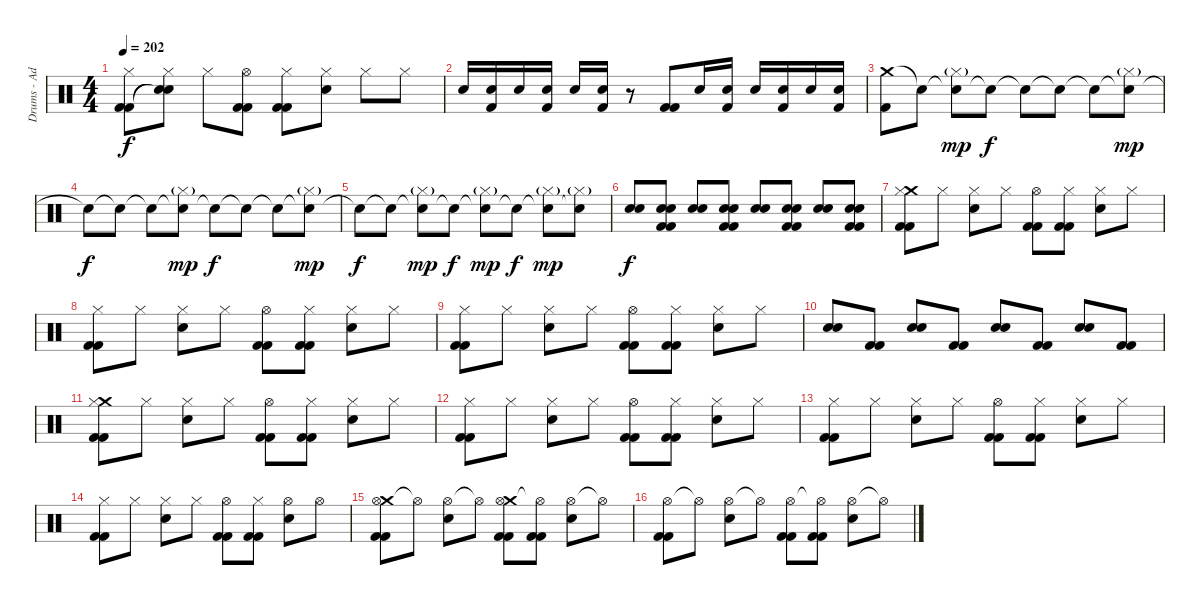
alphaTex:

\track ("Drums - Adam" "Drums - Ad") {instrument percussion}
\staff {score}
\articulation defaults
\ts (4 4)
\tempo 202
\clef neutral
\ks c
("Hi-Hat (closed)" "Kick (hit) 2" "Kick (hit) 2").8{dy f} ("Hi-Hat (closed)" "Snare (hit)"{t} "Snare (hit)"{t}).8 "Hi-Hat (closed)".8 ("Hi-Hat (open)" "Kick (hit) 2" "Kick (hit) 2").8 ("Hi-Hat (closed)" "Kick (hit) 2" "Kick (hit) 2").8 ("Hi-Hat (closed)" "Electric Snare (hit)").8 "Hi-Hat (closed)".8 "Hi-Hat (closed)".8 |
"Electric Snare (hit)".16 ("Electric Snare (hit)" "Kick (hit) 2").16 "Electric Snare (hit)".16 ("Electric Snare (hit)" "Kick (hit) 2").16 "Electric Snare (hit)".16 ("Electric Snare (hit)" "Kick (hit) 2").16 r.8 ("Kick (hit) 2" "Kick (hit) 2").8 "Electric Snare (hit)".16 ("Electric Snare (hit)" "Kick (hit) 2").16 "Electric Snare (hit)".16 ("Electric Snare (hit)" "Kick (hit) 2").16 "Electric Snare (hit)".16 ("Electric Snare (hit)" "Kick (hit) 2").16 |
("Crash medium (hit)" "Kick (hit) 2").8 "Snare (hit)"{t}.8 ("Snare (hit)"{t} "Hi-Hat (closed)"{g}).8{dy mp} "Snare (hit)"{t}.8{dy f} "Snare (hit)"{t}.8 "Snare (hit)"{t}.8 "Snare (hit)"{t}.8 ("Snare (hit)"{t} "Hi-Hat (closed)"{g}).8{dy mp} |
"Snare (hit)"{t}.8{dy f} "Snare (hit)"{t}.8 "Snare (hit)"{t}.8 ("Snare (hit)"{t} "Hi-Hat (closed)"{g}).8{dy mp} "Snare (hit)"{t}.8{dy f} "Snare (hit)"{t}.8 "Snare (hit)"{t}.8 ("Snare (hit)"{t} "Hi-Hat (closed)"{g}).8{dy mp} |
"Snare (hit)"{t}.8{dy f} "Snare (hit)"{t}.8 ("Snare (hit)"{t} "Hi-Hat (closed)"{g}).8{dy mp} "Snare (hit)"{t}.8{dy f} ("Snare (hit)"{t} "Hi-Hat (closed)"{g}).8{dy mp} "Snare (hit)"{t}.8{dy f} ("Snare (hit)"{t} "Hi-Hat (closed)"{g}).8{dy mp} ("Snare (hit)"{t} "Hi-Hat (closed)"{g}).8 |
("Snare (hit) 2" "Electric Snare (hit)").8{dy f} ("Snare (hit) 2" "Electric Snare (hit)" "Kick (hit) 2" "Kick (hit) 2").8 ("Snare (hit) 2" "Electric Snare (hit)").8 ("Snare (hit) 2" "Electric Snare (hit)" "Kick (hit) 2" "Kick (hit) 2").8 ("Snare (hit) 2" "Electric Snare (hit)").8 ("Snare (hit) 2" "Electric Snare (hit)" "Kick (hit) 2" "Kick (hit) 2").8 ("Snare (hit) 2" "Electric Snare (hit)").8 ("Snare (hit) 2" "Electric Snare (hit)" "Kick (hit) 2" "Kick (hit) 2").8 |
("Crash medium (hit)" "Hi-Hat (closed)" "Kick (hit) 2" "Kick (hit) 2").8 "Hi-Hat (closed)".8 ("Hi-Hat (closed)" "Electric Snare (hit)").8 "Hi-Hat (closed)".8 ("Hi-Hat (open)" "Kick (hit) 2" "Kick (hit) 2").8 ("Hi-Hat (closed)" "Kick (hit) 2" "Kick (hit) 2").8 ("Hi-Hat (closed)" "Electric Snare (hit)").8 "Hi-Hat (closed)".8 |
("Hi-Hat (closed)" "Kick (hit) 2" "Kick (hit) 2").8 "Hi-Hat (closed)".8 ("Hi-Hat (closed)" "Electric Snare (hit)").8 "Hi-Hat (closed)".8 ("Hi-Hat (open)" "Kick (hit) 2" "Kick (hit) 2").8 ("Hi-Hat (closed)" "Kick (hit) 2" "Kick (hit) 2").8 ("Hi-Hat (closed)" "Electric Snare (hit)").8 "Hi-Hat (closed)".8 |
("Hi-Hat (closed)" "Kick (hit) 2" "Kick (hit) 2").8 "Hi-Hat (closed)".8 ("Hi-Hat (closed)" "Electric Snare (hit)").8 "Hi-Hat (closed)".8 ("Hi-Hat (open)" "Kick (hit) 2" "Kick (hit) 2").8 ("Hi-Hat (closed)" "Kick (hit) 2" "Kick (hit) 2").8 ("Hi-Hat (closed)" "Electric Snare (hit)").8 "Hi-Hat (closed)".8 |
("Electric Snare (hit)" "Snare (hit) 2").8 ("Kick (hit) 2" "Kick (hit) 2").8 ("Electric Snare (hit)" "Snare (hit) 2").8 ("Kick (hit) 2" "Kick (hit) 2").8 ("Electric Snare (hit)" "Snare (hit) 2").8 ("Kick (hit) 2" "Kick (hit) 2").8 ("Electric Snare (hit)" "Snare (hit) 2").8 ("Kick (hit) 2" "Kick (hit) 2").8 |
("Crash medium (hit)" "Hi-Hat (closed)" "Kick (hit) 2" "Kick (hit) 2").8 "Hi-Hat (closed)".8 ("Hi-Hat (closed)" "Electric Snare (hit)").8 "Hi-Hat (closed)".8 ("Hi-Hat (open)" "Kick (hit) 2" "Kick (hit) 2").8 ("Hi-Hat (closed)" "Kick (hit) 2" "Kick (hit) 2").8 ("Hi-Hat (closed)" "Electric Snare (hit)").8 "Hi-Hat (closed)".8 |
("Hi-Hat (closed)" "Kick (hit) 2" "Kick (hit) 2").8 "Hi-Hat (closed)".8 ("Hi-Hat (closed)" "Electric Snare (hit)").8 "Hi-Hat (closed)".8 ("Hi-Hat (open)" "Kick (hit) 2" "Kick (hit) 2").8 ("Hi-Hat (closed)" "Kick (hit) 2" "Kick (hit) 2").8 ("Hi-Hat (closed)" "Electric Snare (hit)").8 "Hi-Hat (closed)".8 |
("Hi-Hat (closed)" "Kick (hit) 2" "Kick (hit) 2").8 "Hi-Hat (closed)".8 ("Hi-Hat (closed)" "Electric Snare (hit)").8 "Hi-Hat (closed)".8 ("Hi-Hat (open)" "Kick (hit) 2" "Kick (hit) 2").8 ("Hi-Hat (closed)" "Kick (hit) 2" "Kick (hit) 2").8 ("Hi-Hat (closed)" "Electric Snare (hit)").8 "Hi-Hat (closed)".8 |
("Hi-Hat (closed)" "Kick (hit) 2" "Kick (hit) 2").8 "Hi-Hat (closed)".8 ("Hi-Hat (closed)" "Electric Snare (hit)").8 "Hi-Hat (closed)".8 ("Hi-Hat (open)" "Kick (hit) 2" "Kick (hit) 2").8 ("Hi-Hat (closed)" "Kick (hit) 2" "Kick (hit) 2").8 ("Hi-Hat (open)" "Electric Snare (hit)").8 "Hi-Hat (open)".8 |
("Crash medium (hit)" "Hi-Hat (open)" "Kick (hit) 2" "Kick (hit) 2").8 "Hi-Hat (open)"{t}.8 ("Hi-Hat (open)" "Electric Snare (hit)").8 "Hi-Hat (open)"{t}.8 ("Crash medium (hit)" "Hi-Hat (open)" "Kick (hit) 2" "Kick (hit) 2").8 ("Hi-Hat (open)"{t} "Kick (hit) 2" "Kick (hit) 2").8 ("Hi-Hat (open)" "Electric Snare (hit)").8 "Hi-Hat (open)"{t}.8 |
("Hi-Hat (open)" "Kick (hit) 2" "Kick (hit) 2").8 "Hi-Hat (open)"{t}.8 ("Hi-Hat (open)" "Electric Snare (hit)").8 "Hi-Hat (open)"{t}.8 ("Hi-Hat (open)" "Kick (hit) 2" "Kick (hit) 2").8 ("Hi-Hat (open)"{t} "Kick (hit) 2" "Kick (hit) 2").8 ("Hi-Hat (open)" "Electric Snare (hit)").8 "Hi-Hat (open)"{t}.8
